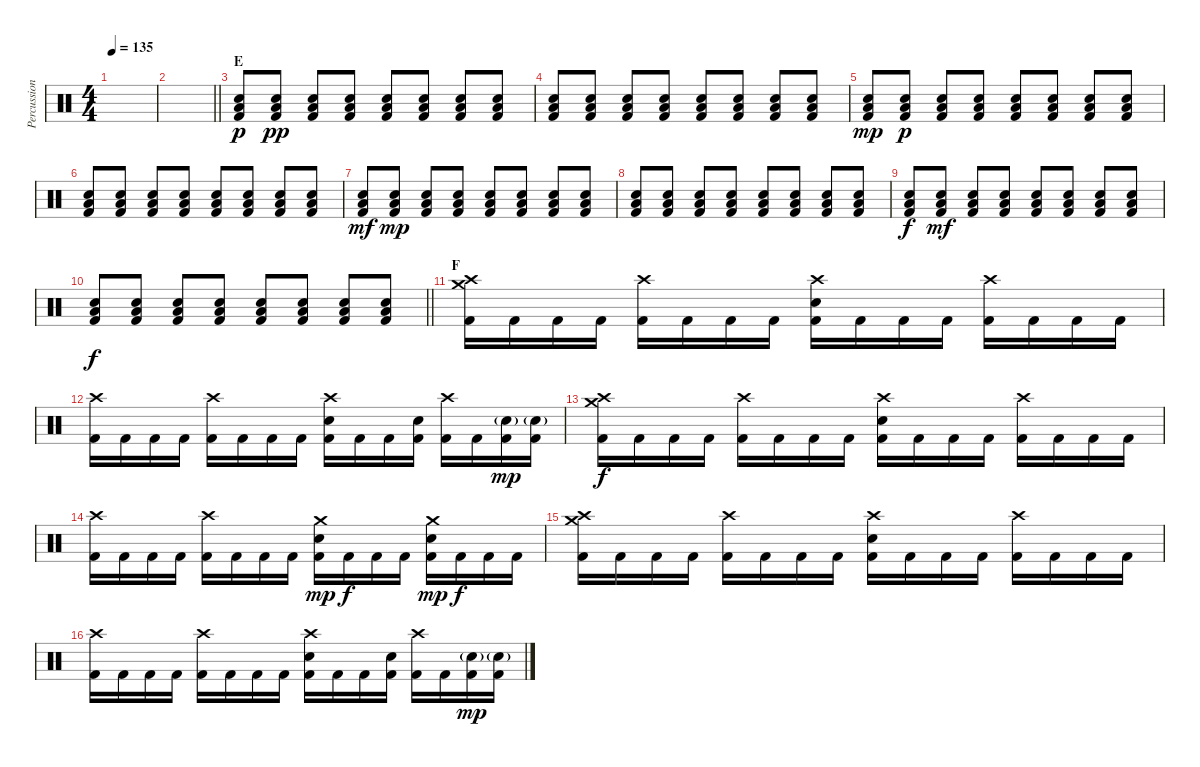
\track ("Percussion" "Percussion") {instrument percussion}
\staff {score}
\articulation defaults
\ts (4 4)
\tempo 135
\clef neutral
\ks c
|
\barLineRight lightlight
|
\section ("" "E")
("Low Floor Tom (hit)" "Electric Snare (hit)" "Kick (hit) 2").8{dy p} ("Low Floor Tom (hit)" "Electric Snare (hit)" "Kick (hit) 2").8{dy pp} ("Low Floor Tom (hit)" "Electric Snare (hit)" "Kick (hit) 2").8 ("Low Floor Tom (hit)" "Electric Snare (hit)" "Kick (hit) 2").8 ("Low Floor Tom (hit)" "Electric Snare (hit)" "Kick (hit) 2").8 ("Low Floor Tom (hit)" "Electric Snare (hit)" "Kick (hit) 2").8 ("Low Floor Tom (hit)" "Electric Snare (hit)" "Kick (hit) 2").8 ("Low Floor Tom (hit)" "Electric Snare (hit)" "Kick (hit) 2").8 |
("Low Floor Tom (hit)" "Electric Snare (hit)" "Kick (hit) 2").8 ("Low Floor Tom (hit)" "Electric Snare (hit)" "Kick (hit) 2").8 ("Low Floor Tom (hit)" "Electric Snare (hit)" "Kick (hit) 2").8 ("Low Floor Tom (hit)" "Electric Snare (hit)" "Kick (hit) 2").8 ("Low Floor Tom (hit)" "Electric Snare (hit)" "Kick (hit) 2").8 ("Low Floor Tom (hit)" "Electric Snare (hit)" "Kick (hit) 2").8 ("Low Floor Tom (hit)" "Electric Snare (hit)" "Kick (hit) 2").8 ("Low Floor Tom (hit)" "Electric Snare (hit)" "Kick (hit) 2").8 |
("Low Floor Tom (hit)" "Electric Snare (hit)" "Kick (hit) 2").8{dy mp} ("Low Floor Tom (hit)" "Electric Snare (hit)" "Kick (hit) 2").8{dy p} ("Low Floor Tom (hit)" "Electric Snare (hit)" "Kick (hit) 2").8 ("Low Floor Tom (hit)" "Electric Snare (hit)" "Kick (hit) 2").8 ("Low Floor Tom (hit)" "Electric Snare (hit)" "Kick (hit) 2").8 ("Low Floor Tom (hit)" "Electric Snare (hit)" "Kick (hit) 2").8 ("Low Floor Tom (hit)" "Electric Snare (hit)" "Kick (hit) 2").8 ("Low Floor Tom (hit)" "Electric Snare (hit)" "Kick (hit) 2").8 |
("Low Floor Tom (hit)" "Electric Snare (hit)" "Kick (hit) 2").8 ("Low Floor Tom (hit)" "Electric Snare (hit)" "Kick (hit) 2").8 ("Low Floor Tom (hit)" "Electric Snare (hit)" "Kick (hit) 2").8 ("Low Floor Tom (hit)" "Electric Snare (hit)" "Kick (hit) 2").8 ("Low Floor Tom (hit)" "Electric Snare (hit)" "Kick (hit) 2").8 ("Low Floor Tom (hit)" "Electric Snare (hit)" "Kick (hit) 2").8 ("Low Floor Tom (hit)" "Electric Snare (hit)" "Kick (hit) 2").8 ("Low Floor Tom (hit)" "Electric Snare (hit)" "Kick (hit) 2").8 |
("Low Floor Tom (hit)" "Electric Snare (hit)" "Kick (hit) 2").8{dy mf} ("Low Floor Tom (hit)" "Electric Snare (hit)" "Kick (hit) 2").8{dy mp} ("Low Floor Tom (hit)" "Electric Snare (hit)" "Kick (hit) 2").8 ("Low Floor Tom (hit)" "Electric Snare (hit)" "Kick (hit) 2").8 ("Low Floor Tom (hit)" "Electric Snare (hit)" "Kick (hit) 2").8 ("Low Floor Tom (hit)" "Electric Snare (hit)" "Kick (hit) 2").8 ("Low Floor Tom (hit)" "Electric Snare (hit)" "Kick (hit) 2").8 ("Low Floor Tom (hit)" "Electric Snare (hit)" "Kick (hit) 2").8 |
("Low Floor Tom (hit)" "Electric Snare (hit)" "Kick (hit) 2").8 ("Low Floor Tom (hit)" "Electric Snare (hit)" "Kick (hit) 2").8 ("Low Floor Tom (hit)" "Electric Snare (hit)" "Kick (hit) 2").8 ("Low Floor Tom (hit)" "Electric Snare (hit)" "Kick (hit) 2").8 ("Low Floor Tom (hit)" "Electric Snare (hit)" "Kick (hit) 2").8 ("Low Floor Tom (hit)" "Electric Snare (hit)" "Kick (hit) 2").8 ("Low Floor Tom (hit)" "Electric Snare (hit)" "Kick (hit) 2").8 ("Low Floor Tom (hit)" "Electric Snare (hit)" "Kick (hit) 2").8 |
("Low Floor Tom (hit)" "Electric Snare (hit)" "Kick (hit) 2").8{dy f} ("Low Floor Tom (hit)" "Electric Snare (hit)" "Kick (hit) 2").8{dy mf} ("Low Floor Tom (hit)" "Electric Snare (hit)" "Kick (hit) 2").8 ("Low Floor Tom (hit)" "Electric Snare (hit)" "Kick (hit) 2").8 ("Low Floor Tom (hit)" "Electric Snare (hit)" "Kick (hit) 2").8 ("Low Floor Tom (hit)" "Electric Snare (hit)" "Kick (hit) 2").8 ("Low Floor Tom (hit)" "Electric Snare (hit)" "Kick (hit) 2").8 ("Low Floor Tom (hit)" "Electric Snare (hit)" "Kick (hit) 2").8 |
\barLineRight lightlight
("Low Floor Tom (hit)" "Electric Snare (hit)" "Kick (hit) 2").8{dy f} ("Low Floor Tom (hit)" "Electric Snare (hit)" "Kick (hit) 2").8 ("Low Floor Tom (hit)" "Electric Snare (hit)" "Kick (hit) 2").8 ("Low Floor Tom (hit)" "Electric Snare (hit)" "Kick (hit) 2").8 ("Low Floor Tom (hit)" "Electric Snare (hit)" "Kick (hit) 2").8 ("Low Floor Tom (hit)" "Electric Snare (hit)" "Kick (hit) 2").8 ("Low Floor Tom (hit)" "Electric Snare (hit)" "Kick (hit) 2").8 ("Low Floor Tom (hit)" "Electric Snare (hit)" "Kick (hit) 2").8 |
\section ("" "F")
("Crash high (hit)" "Crash medium (hit)" "Kick (hit) 2").16 "Kick (hit) 2".16 "Kick (hit) 2".16 "Kick (hit) 2".16 ("Crash high (hit)" "Kick (hit) 2").16 "Kick (hit) 2".16 "Kick (hit) 2".16 "Kick (hit) 2".16 ("Crash high (hit)" "Electric Snare (hit)" "Kick (hit) 2").16 "Kick (hit) 2".16 "Kick (hit) 2".16 "Kick (hit) 2".16 ("Crash high (hit)" "Kick (hit) 2").16 "Kick (hit) 2".16 "Kick (hit) 2".16 "Kick (hit) 2".16 |
("Crash high (hit)" "Kick (hit) 2").16 "Kick (hit) 2".16 "Kick (hit) 2".16 "Kick (hit) 2".16 ("Crash high (hit)" "Kick (hit) 2").16 "Kick (hit) 2".16 "Kick (hit) 2".16 "Kick (hit) 2".16 ("Crash high (hit)" "Electric Snare (hit)" "Kick (hit) 2").16 "Kick (hit) 2".16 "Kick (hit) 2".16 ("Electric Snare (hit)" "Kick (hit) 2").16 ("Crash high (hit)" "Kick (hit) 2").16 "Kick (hit) 2".16 ("Electric Snare (hit)"{g} "Kick (hit) 2").16{dy mp} ("Electric Snare (hit)"{g} "Kick (hit) 2").16 |
("Crash high (hit)" "Crash medium (hit)" "Kick (hit) 2").16{dy f} "Kick (hit) 2".16 "Kick (hit) 2".16 "Kick (hit) 2".16 ("Crash high (hit)" "Kick (hit) 2").16 "Kick (hit) 2".16 "Kick (hit) 2".16 "Kick (hit) 2".16 ("Crash high (hit)" "Electric Snare (hit)" "Kick (hit) 2").16 "Kick (hit) 2".16 "Kick (hit) 2".16 "Kick (hit) 2".16 ("Crash high (hit)" "Kick (hit) 2").16 "Kick (hit) 2".16 "Kick (hit) 2".16 "Kick (hit) 2".16 |
("Crash high (hit)" "Kick (hit) 2").16 "Kick (hit) 2".16 "Kick (hit) 2".16 "Kick (hit) 2".16 ("Crash high (hit)" "Kick (hit) 2").16 "Kick (hit) 2".16 "Kick (hit) 2".16 "Kick (hit) 2".16 ("Crash medium (hit)" "Electric Snare (hit)" "Kick (hit) 2").16{dy mp} "Kick (hit) 2".16{dy f} "Kick (hit) 2".16 "Kick (hit) 2".16 ("Crash medium (hit)" "Electric Snare (hit)" "Kick (hit) 2").16{dy mp} "Kick (hit) 2".16{dy f} "Kick (hit) 2".16 "Kick (hit) 2".16 |
("Crash high (hit)" "Crash medium (hit)" "Kick (hit) 2").16 "Kick (hit) 2".16 "Kick (hit) 2".16 "Kick (hit) 2".16 ("Crash high (hit)" "Kick (hit) 2").16 "Kick (hit) 2".16 "Kick (hit) 2".16 "Kick (hit) 2".16 ("Crash high (hit)" "Electric Snare (hit)" "Kick (hit) 2").16 "Kick (hit) 2".16 "Kick (hit) 2".16 "Kick (hit) 2".16 ("Crash high (hit)" "Kick (hit) 2").16 "Kick (hit) 2".16 "Kick (hit) 2".16 "Kick (hit) 2".16 |
("Crash high (hit)" "Kick (hit) 2").16 "Kick (hit) 2".16 "Kick (hit) 2".16 "Kick (hit) 2".16 ("Crash high (hit)" "Kick (hit) 2").16 "Kick (hit) 2".16 "Kick (hit) 2".16 "Kick (hit) 2".16 ("Crash high (hit)" "Electric Snare (hit)" "Kick (hit) 2").16 "Kick (hit) 2".16 "Kick (hit) 2".16 ("Electric Snare (hit)" "Kick (hit) 2").16 ("Crash high (hit)" "Kick (hit) 2").16 "Kick (hit) 2".16 ("Electric Snare (hit)"{g} "Kick (hit) 2").16{dy mp} ("Electric Snare (hit)"{g} "Kick (hit) 2").16
